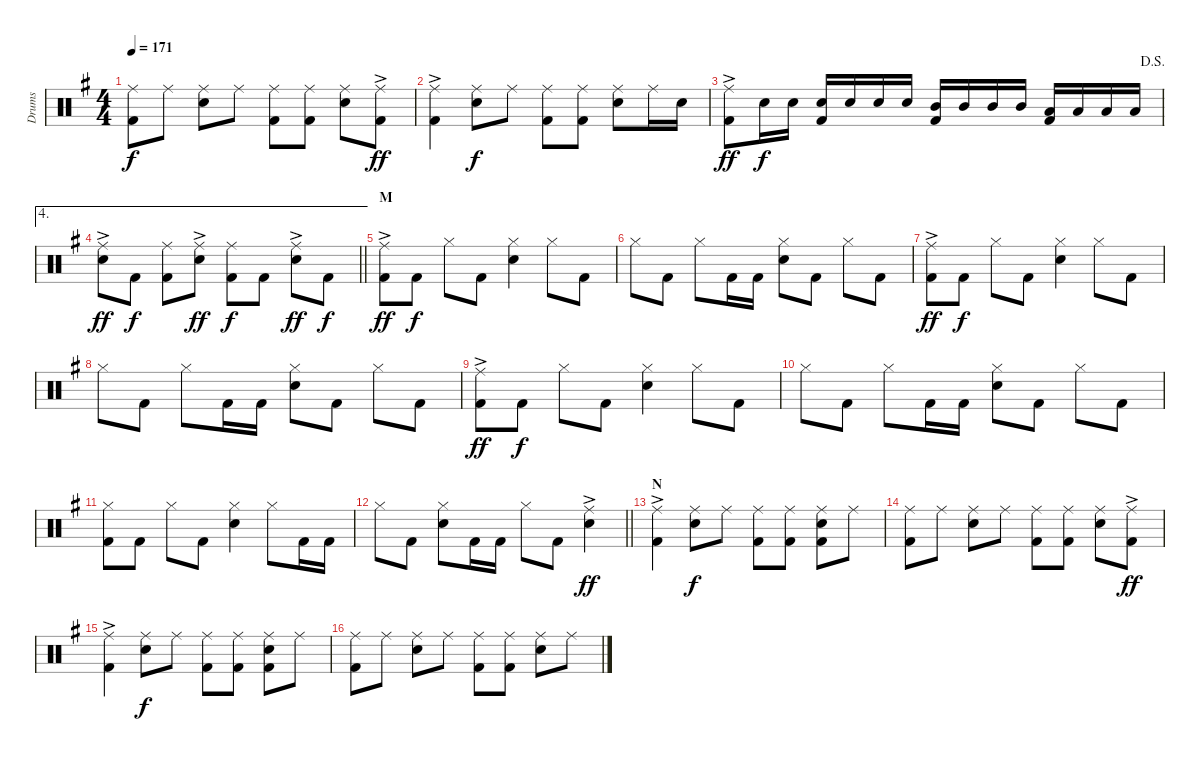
\track ("Drums" "Drums") {instrument percussion}
\staff {score}
\articulation defaults
\ts (4 4)
\tempo 171
\clef neutral
\ks g
("Ride (middle)" "Kick (hit) 2").8{dy f} "Ride (middle)".8 ("Ride (middle)" "Snare (hit) 2").8 "Ride (middle)".8 ("Ride (middle)" "Kick (hit) 2").8 ("Ride (middle)" "Kick (hit) 2").8 ("Ride (middle)" "Snare (hit) 2").8 ("Ride (middle)"{ac} "Kick (hit) 2").8{dy ff} |
("Ride (middle)"{ac} "Kick (hit) 2").4 ("Ride (middle)" "Snare (hit) 2").8{dy f} "Ride (middle)".8 ("Ride (middle)" "Kick (hit) 2").8 ("Ride (middle)" "Kick (hit) 2").8 ("Ride (middle)" "Snare (hit) 2").8 "Ride (middle)".16 "Snare (hit) 2".16 |
\jump dalsegno
("Ride (middle)"{ac} "Kick (hit) 2").8{dy ff} "Snare (hit) 2".16{dy f} "Snare (hit) 2".16 ("Snare (hit) 2" "Kick (hit) 2").16 "Snare (hit) 2".16 "Snare (hit) 2".16 "Snare (hit) 2".16 ("Mid Tom (hit)" "Kick (hit) 2").16 "Mid Tom (hit)".16 "Mid Tom (hit)".16 "Mid Tom (hit)".16 ("Low Tom (hit)" "Kick (hit) 2").16 "Low Tom (hit)".16 "Low Tom (hit)".16 "Low Tom (hit)".16 |
\ae 4
\barLineRight lightlight
("Ride (middle)"{ac} "Snare (hit) 2").8{dy ff} "Kick (hit) 2".8{dy f} ("Ride (middle)" "Kick (hit) 2").8 ("Ride (middle)"{ac} "Snare (hit) 2").8{dy ff} ("Ride (middle)" "Kick (hit) 2").8{dy f} "Kick (hit) 2".8 ("Ride (middle)"{ac} "Snare (hit) 2").8{dy ff} "Kick (hit) 2".8{dy f} |
\section ("" "M")
("Ride (middle)"{ac} "Kick (hit) 2").8{dy ff} "Kick (hit) 2".8{dy f} "Hi-Hat (closed)".8 "Kick (hit) 2".8 ("Hi-Hat (closed)" "Snare (hit) 2").4 "Hi-Hat (closed)".8 "Kick (hit) 2".8 |
"Hi-Hat (closed)".8 "Kick (hit) 2".8 "Hi-Hat (closed)".8 "Kick (hit) 2".16 "Kick (hit) 2".16 ("Hi-Hat (closed)" "Snare (hit) 2").8 "Kick (hit) 2".8 "Hi-Hat (closed)".8 "Kick (hit) 2".8 |
("Ride (middle)"{ac} "Kick (hit) 2").8{dy ff} "Kick (hit) 2".8{dy f} "Hi-Hat (closed)".8 "Kick (hit) 2".8 ("Hi-Hat (closed)" "Snare (hit) 2").4 "Hi-Hat (closed)".8 "Kick (hit) 2".8 |
"Hi-Hat (closed)".8 "Kick (hit) 2".8 "Hi-Hat (closed)".8 "Kick (hit) 2".16 "Kick (hit) 2".16 ("Hi-Hat (closed)" "Snare (hit) 2").8 "Kick (hit) 2".8 "Hi-Hat (closed)".8 "Kick (hit) 2".8 |
("Ride (middle)"{ac} "Kick (hit) 2").8{dy ff} "Kick (hit) 2".8{dy f} "Hi-Hat (closed)".8 "Kick (hit) 2".8 ("Hi-Hat (closed)" "Snare (hit) 2").4 "Hi-Hat (closed)".8 "Kick (hit) 2".8 |
"Hi-Hat (closed)".8 "Kick (hit) 2".8 "Hi-Hat (closed)".8 "Kick (hit) 2".16 "Kick (hit) 2".16 ("Hi-Hat (closed)" "Snare (hit) 2").8 "Kick (hit) 2".8 "Hi-Hat (closed)".8 "Kick (hit) 2".8 |
("Hi-Hat (closed)" "Kick (hit) 2").8 "Kick (hit) 2".8 "Hi-Hat (closed)".8 "Kick (hit) 2".8 ("Hi-Hat (closed)" "Snare (hit) 2").4 "Hi-Hat (closed)".8 "Kick (hit) 2".16 "Kick (hit) 2".16 |
\barLineRight lightlight "Hi-Hat (closed)".8 "Kick (hit) 2".8
("Hi-Hat (closed)" "Snare (hit) 2").8 "Kick (hit) 2".16 "Kick (hit) 2".16 "Hi-Hat (closed)".8 "Kick (hit) 2".8 ("Ride (middle)"{ac} "Snare (hit) 2").4{dy ff} |
\section ("" "N")
("Ride (middle)"{ac} "Kick (hit) 2").4 ("Ride (middle)" "Snare (hit) 2").8{dy f} "Ride (middle)".8 ("Ride (middle)" "Kick (hit) 2").8 ("Ride (middle)" "Kick (hit) 2").8 ("Ride (middle)" "Snare (hit) 2" "Kick (hit) 2").8 "Ride (middle)".8 |
("Ride (middle)" "Kick (hit) 2").8 "Ride (middle)".8 ("Ride (middle)" "Snare (hit) 2").8 "Ride (middle)".8 ("Ride (middle)" "Kick (hit) 2").8 ("Ride (middle)" "Kick (hit) 2").8 ("Ride (middle)" "Snare (hit) 2").8 ("Ride (middle)"{ac} "Kick (hit) 2").8{dy ff} |
("Ride (middle)"{ac} "Kick (hit) 2").4 ("Ride (middle)" "Snare (hit) 2").8{dy f} "Ride (middle)".8 ("Ride (middle)" "Kick (hit) 2").8 ("Ride (middle)" "Kick (hit) 2").8 ("Ride (middle)" "Snare (hit) 2" "Kick (hit) 2").8 "Ride (middle)".8 |
("Ride (middle)" "Kick (hit) 2").8 "Ride (middle)".8 ("Ride (middle)" "Snare (hit) 2").8 "Ride (middle)".8 ("Ride (middle)" "Kick (hit) 2").8 ("Ride (middle)" "Kick (hit) 2").8 ("Ride (middle)" "Snare (hit) 2").8 "Ride (middle)".8
